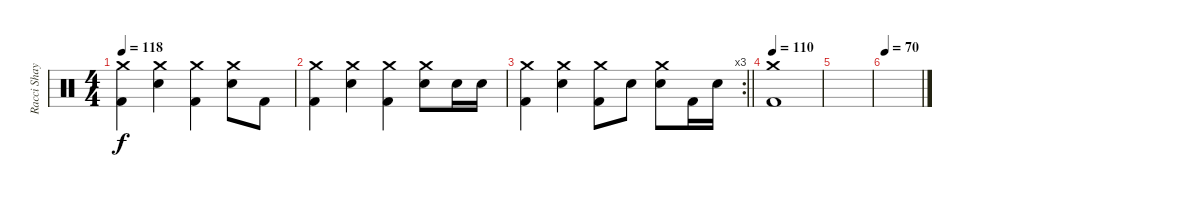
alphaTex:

\track ("Racci Shay" "Racci Shay") {instrument percussion}
\staff {score}
\articulation defaults
\ts (4 4)
\tempo 118
\clef neutral
\ks c
("Crash medium (hit)" "Kick (hit) 2").4{dy f} ("Crash medium (hit)" "Electric Snare (hit)").4 ("Crash medium (hit)" "Kick (hit) 2").4 ("Crash medium (hit)" "Electric Snare (hit)").8 "Kick (hit) 2".8 |
("Crash medium (hit)" "Kick (hit) 2").4 ("Crash medium (hit)" "Electric Snare (hit)").4 ("Crash medium (hit)" "Kick (hit) 2").4 ("Crash medium (hit)" "Electric Snare (hit)").8 "Electric Snare (hit)".16 "Electric Snare (hit)".16 |
\rc 3
\barLineRight lightlight
("Crash medium (hit)" "Kick (hit) 2").4 ("Crash medium (hit)" "Electric Snare (hit)").4 ("Crash medium (hit)" "Kick (hit) 2").8 "Electric Snare (hit)".8 ("Crash medium (hit)" "Electric Snare (hit)").8 "Kick (hit) 2".16 "Electric Snare (hit)".16 |
\tempo 110
("Crash medium (hit)" "Kick (hit) 2").1 |
|
\tempo 70
